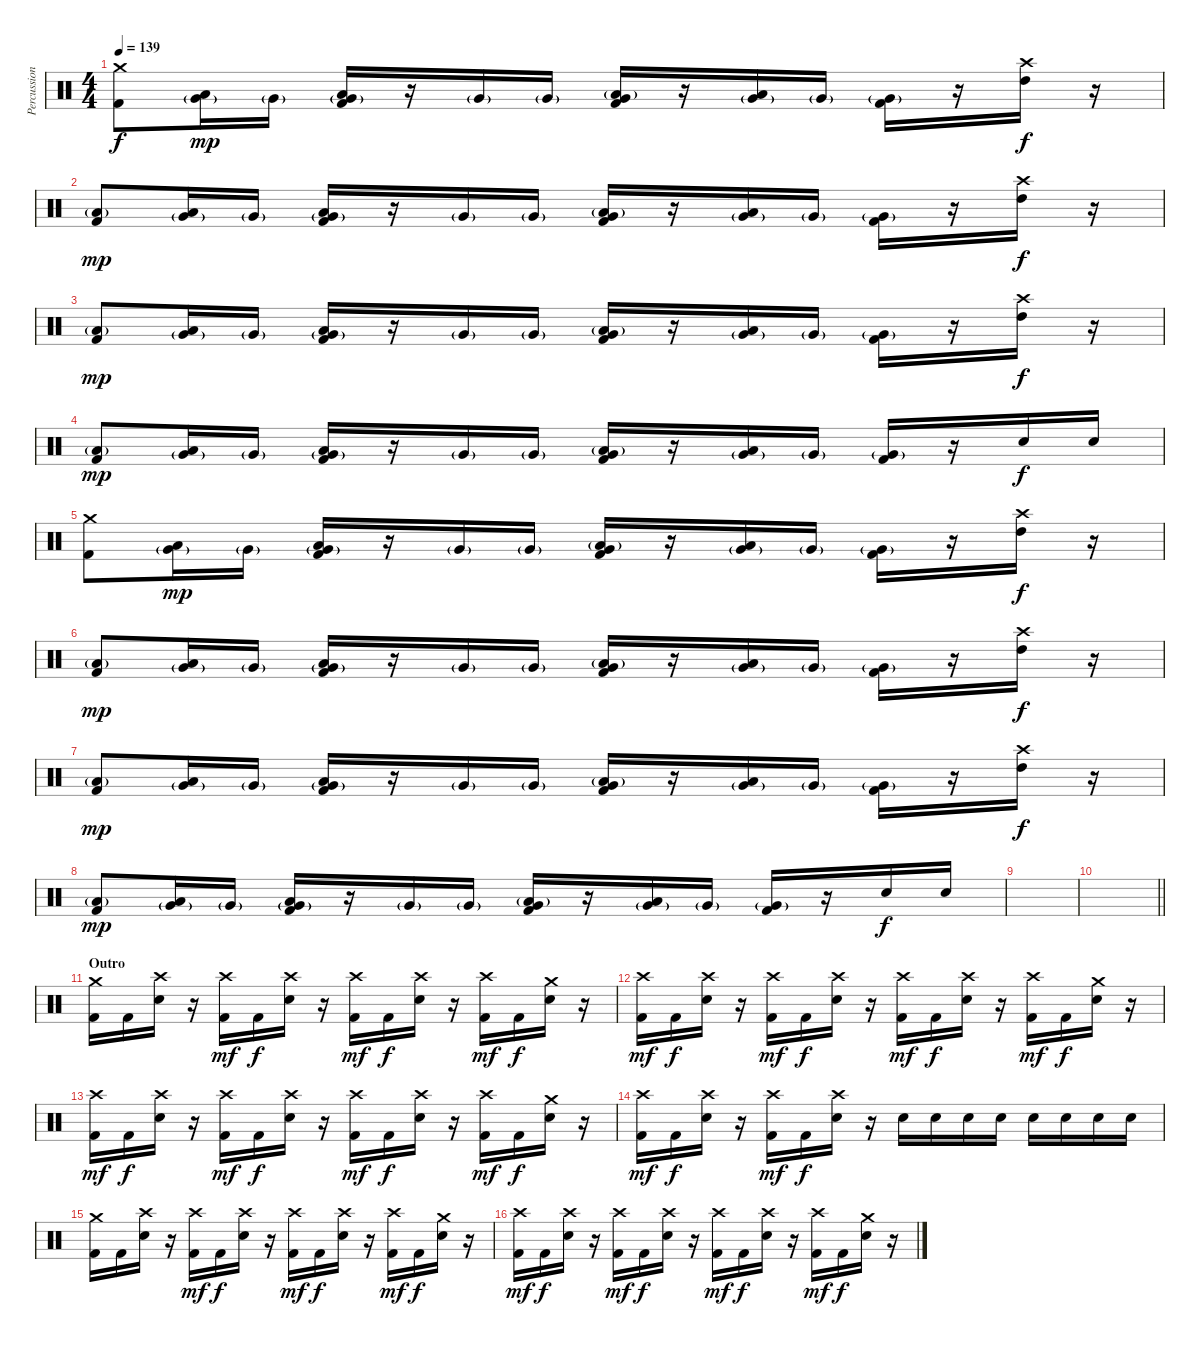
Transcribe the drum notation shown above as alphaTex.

\track ("Percussion" "Percussion") {instrument percussion}
\staff {score}
\articulation defaults
\ts (4 4)
\tempo 139
\clef neutral
\ks c
("Crash medium (hit)" "Kick (hit) 2").8{dy f} ("Low Tom (hit)" "Very Low Tom (hit)"{g}).16{dy mp} "Very Low Tom (hit)"{g}.16 ("Low Tom (hit)" "Very Low Tom (hit)"{g} "Kick (hit) 2").16 r.16 "Very Low Tom (hit)"{g}.16 "Very Low Tom (hit)"{g}.16 ("Very Low Tom (hit)" "Low Floor Tom (hit)"{g} "Kick (hit) 2").16 r.16 ("Low Tom (hit)" "Very Low Tom (hit)"{g}).16 "Very Low Tom (hit)"{g}.16 ("Very Low Tom (hit)"{g} "Kick (hit) 2").16 r.16 ("Crash high (hit)" "High Tom (hit)").16{dy f} r.16 |
("Low Floor Tom (hit)"{g} "Kick (hit) 2").8{dy mp} ("Low Tom (hit)" "Very Low Tom (hit)"{g}).16 "Very Low Tom (hit)"{g}.16 ("Low Tom (hit)" "Very Low Tom (hit)"{g} "Kick (hit) 2").16 r.16 "Very Low Tom (hit)"{g}.16 "Very Low Tom (hit)"{g}.16 ("Very Low Tom (hit)" "Low Floor Tom (hit)"{g} "Kick (hit) 2").16 r.16 ("Low Tom (hit)" "Very Low Tom (hit)"{g}).16 "Very Low Tom (hit)"{g}.16 ("Very Low Tom (hit)"{g} "Kick (hit) 2").16 r.16 ("Crash high (hit)" "High Tom (hit)").16{dy f} r.16 |
("Low Floor Tom (hit)"{g} "Kick (hit) 2").8{dy mp} ("Low Tom (hit)" "Very Low Tom (hit)"{g}).16 "Very Low Tom (hit)"{g}.16 ("Low Tom (hit)" "Very Low Tom (hit)"{g} "Kick (hit) 2").16 r.16 "Very Low Tom (hit)"{g}.16 "Very Low Tom (hit)"{g}.16 ("Very Low Tom (hit)" "Low Floor Tom (hit)"{g} "Kick (hit) 2").16 r.16 ("Low Tom (hit)" "Very Low Tom (hit)"{g}).16 "Very Low Tom (hit)"{g}.16 ("Very Low Tom (hit)"{g} "Kick (hit) 2").16 r.16 ("Crash high (hit)" "High Tom (hit)").16{dy f} r.16 |
("Low Floor Tom (hit)"{g} "Kick (hit) 2").8{dy mp} ("Low Tom (hit)" "Very Low Tom (hit)"{g}).16 "Very Low Tom (hit)"{g}.16 ("Low Tom (hit)" "Very Low Tom (hit)"{g} "Kick (hit) 2").16 r.16 "Very Low Tom (hit)"{g}.16 "Very Low Tom (hit)"{g}.16 ("Very Low Tom (hit)" "Low Floor Tom (hit)"{g} "Kick (hit) 2").16 r.16 ("Low Tom (hit)" "Very Low Tom (hit)"{g}).16 "Very Low Tom (hit)"{g}.16 ("Very Low Tom (hit)"{g} "Kick (hit) 2").16 r.16 "Snare (hit) 2".16{dy f} "Snare (hit) 2".16 |
("Crash medium (hit)" "Kick (hit) 2").8 ("Low Tom (hit)" "Very Low Tom (hit)"{g}).16{dy mp} "Very Low Tom (hit)"{g}.16 ("Low Tom (hit)" "Very Low Tom (hit)"{g} "Kick (hit) 2").16 r.16 "Very Low Tom (hit)"{g}.16 "Very Low Tom (hit)"{g}.16 ("Very Low Tom (hit)" "Low Floor Tom (hit)"{g} "Kick (hit) 2").16 r.16 ("Low Tom (hit)" "Very Low Tom (hit)"{g}).16 "Very Low Tom (hit)"{g}.16 ("Very Low Tom (hit)"{g} "Kick (hit) 2").16 r.16 ("Crash high (hit)" "High Tom (hit)").16{dy f} r.16 |
("Low Floor Tom (hit)"{g} "Kick (hit) 2").8{dy mp} ("Low Tom (hit)" "Very Low Tom (hit)"{g}).16 "Very Low Tom (hit)"{g}.16 ("Low Tom (hit)" "Very Low Tom (hit)"{g} "Kick (hit) 2").16 r.16 "Very Low Tom (hit)"{g}.16 "Very Low Tom (hit)"{g}.16 ("Very Low Tom (hit)" "Low Floor Tom (hit)"{g} "Kick (hit) 2").16 r.16 ("Low Tom (hit)" "Very Low Tom (hit)"{g}).16 "Very Low Tom (hit)"{g}.16 ("Very Low Tom (hit)"{g} "Kick (hit) 2").16 r.16 ("Crash high (hit)" "High Tom (hit)").16{dy f} r.16 |
("Low Floor Tom (hit)"{g} "Kick (hit) 2").8{dy mp} ("Low Tom (hit)" "Very Low Tom (hit)"{g}).16 "Very Low Tom (hit)"{g}.16 ("Low Tom (hit)" "Very Low Tom (hit)"{g} "Kick (hit) 2").16 r.16 "Very Low Tom (hit)"{g}.16 "Very Low Tom (hit)"{g}.16 ("Very Low Tom (hit)" "Low Floor Tom (hit)"{g} "Kick (hit) 2").16 r.16 ("Low Tom (hit)" "Very Low Tom (hit)"{g}).16 "Very Low Tom (hit)"{g}.16 ("Very Low Tom (hit)"{g} "Kick (hit) 2").16 r.16 ("Crash high (hit)" "High Tom (hit)").16{dy f} r.16 |
("Low Floor Tom (hit)"{g} "Kick (hit) 2").8{dy mp} ("Low Tom (hit)" "Very Low Tom (hit)"{g}).16 "Very Low Tom (hit)"{g}.16 ("Low Tom (hit)" "Very Low Tom (hit)"{g} "Kick (hit) 2").16 r.16 "Very Low Tom (hit)"{g}.16 "Very Low Tom (hit)"{g}.16 ("Very Low Tom (hit)" "Low Floor Tom (hit)"{g} "Kick (hit) 2").16 r.16 ("Low Tom (hit)" "Very Low Tom (hit)"{g}).16 "Very Low Tom (hit)"{g}.16 ("Very Low Tom (hit)"{g} "Kick (hit) 2").16 r.16 "Snare (hit) 2".16{dy f} "Snare (hit) 2".16 |
|
\barLineRight lightlight
|
\section ("" "Outro")
("Crash medium (hit)" "Kick (hit) 2").16{volume 10} "Kick (hit) 2".16 ("Crash high (hit)" "Snare (hit) 2").16 r.16 ("Crash high (hit)" "Kick (hit) 2").16{dy mf} "Kick (hit) 2".16{dy f} ("Crash high (hit)" "Snare (hit) 2").16 r.16 ("Crash high (hit)" "Kick (hit) 2").16{dy mf} "Kick (hit) 2".16{dy f} ("Crash high (hit)" "Snare (hit) 2").16 r.16 ("Crash high (hit)" "Kick (hit) 2").16{dy mf} "Kick (hit) 2".16{dy f} ("Crash medium (hit)" "Snare (hit) 2").16 r.16 |
("Crash high (hit)" "Kick (hit) 2").16{dy mf} "Kick (hit) 2".16{dy f} ("Crash high (hit)" "Snare (hit) 2").16 r.16 ("Crash high (hit)" "Kick (hit) 2").16{dy mf} "Kick (hit) 2".16{dy f} ("Crash high (hit)" "Snare (hit) 2").16 r.16 ("Crash high (hit)" "Kick (hit) 2").16{dy mf} "Kick (hit) 2".16{dy f} ("Crash high (hit)" "Snare (hit) 2").16 r.16 ("Crash high (hit)" "Kick (hit) 2").16{dy mf} "Kick (hit) 2".16{dy f} ("Crash medium (hit)" "Snare (hit) 2").16 r.16 |
("Crash high (hit)" "Kick (hit) 2").16{dy mf} "Kick (hit) 2".16{dy f} ("Crash high (hit)" "Snare (hit) 2").16 r.16 ("Crash high (hit)" "Kick (hit) 2").16{dy mf} "Kick (hit) 2".16{dy f} ("Crash high (hit)" "Snare (hit) 2").16 r.16 ("Crash high (hit)" "Kick (hit) 2").16{dy mf} "Kick (hit) 2".16{dy f} ("Crash high (hit)" "Snare (hit) 2").16 r.16 ("Crash high (hit)" "Kick (hit) 2").16{dy mf} "Kick (hit) 2".16{dy f} ("Crash medium (hit)" "Snare (hit) 2").16 r.16 |
("Crash high (hit)" "Kick (hit) 2").16{dy mf} "Kick (hit) 2".16{dy f} ("Crash high (hit)" "Snare (hit) 2").16 r.16 ("Crash high (hit)" "Kick (hit) 2").16{dy mf} "Kick (hit) 2".16{dy f} ("Crash high (hit)" "Snare (hit) 2").16 r.16 "Snare (hit) 2".16 "Snare (hit) 2".16 "Snare (hit) 2".16 "Snare (hit) 2".16 "Snare (hit) 2".16 "Snare (hit) 2".16 "Snare (hit) 2".16 "Snare (hit) 2".16 |
("Crash medium (hit)" "Kick (hit) 2").16 "Kick (hit) 2".16 ("Crash high (hit)" "Snare (hit) 2").16 r.16 ("Crash high (hit)" "Kick (hit) 2").16{dy mf} "Kick (hit) 2".16{dy f} ("Crash high (hit)" "Snare (hit) 2").16 r.16 ("Crash high (hit)" "Kick (hit) 2").16{dy mf} "Kick (hit) 2".16{dy f} ("Crash high (hit)" "Snare (hit) 2").16 r.16 ("Crash high (hit)" "Kick (hit) 2").16{dy mf} "Kick (hit) 2".16{dy f} ("Crash medium (hit)" "Snare (hit) 2").16 r.16 |
("Crash high (hit)" "Kick (hit) 2").16{dy mf} "Kick (hit) 2".16{dy f} ("Crash high (hit)" "Snare (hit) 2").16 r.16 ("Crash high (hit)" "Kick (hit) 2").16{dy mf} "Kick (hit) 2".16{dy f} ("Crash high (hit)" "Snare (hit) 2").16 r.16 ("Crash high (hit)" "Kick (hit) 2").16{dy mf} "Kick (hit) 2".16{dy f} ("Crash high (hit)" "Snare (hit) 2").16 r.16 ("Crash high (hit)" "Kick (hit) 2").16{dy mf} "Kick (hit) 2".16{dy f} ("Crash medium (hit)" "Snare (hit) 2").16 r.16
